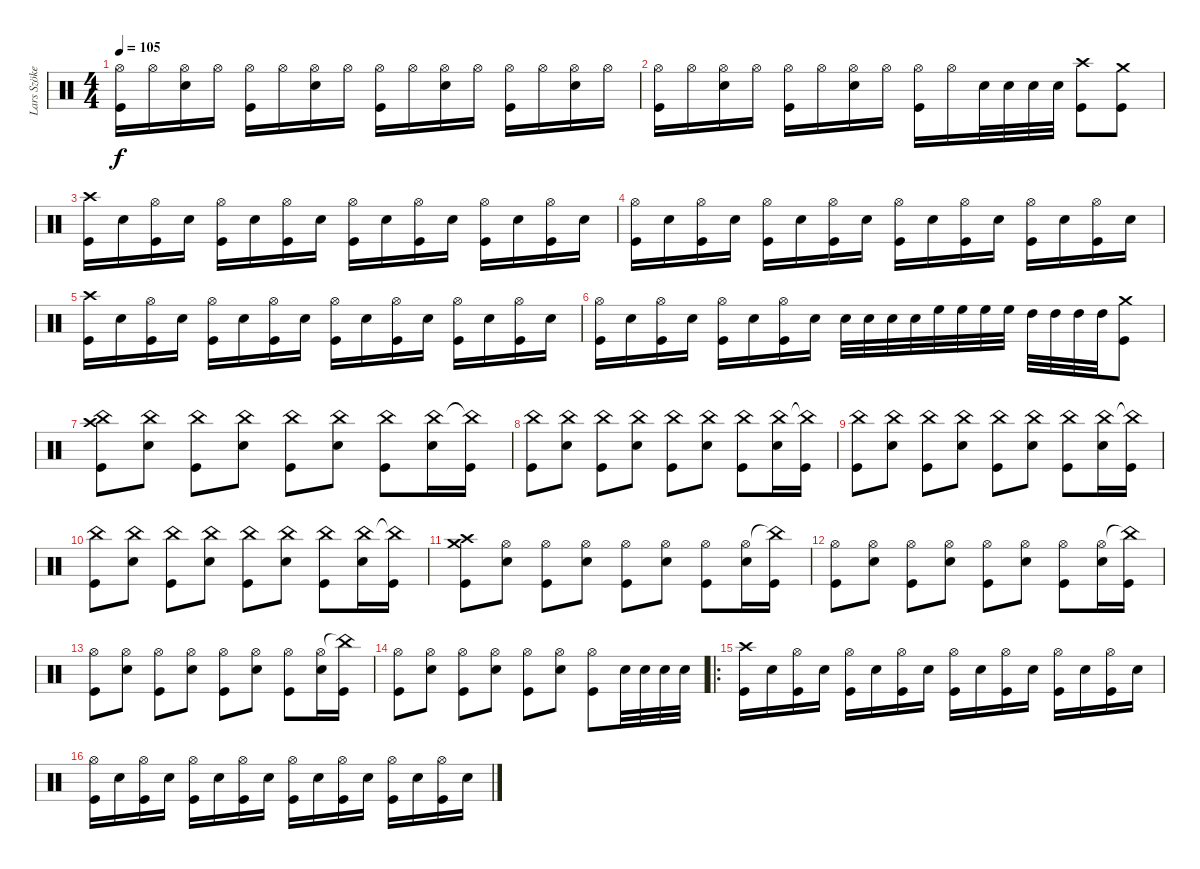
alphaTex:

\track ("Lars Szöke" "Lars Szöke") {instrument percussion}
\staff {score}
\articulation defaults
\ts (4 4)
\tempo 105
\clef neutral
\ks c
("Hi-Hat (open)" "Kick (hit)").16{dy f} "Hi-Hat (open)".16 ("Hi-Hat (open)" "Snare (hit) 2").16 "Hi-Hat (open)".16 ("Hi-Hat (open)" "Kick (hit)").16 "Hi-Hat (open)".16 ("Hi-Hat (open)" "Snare (hit) 2").16 "Hi-Hat (open)".16 ("Hi-Hat (open)" "Kick (hit)").16 "Hi-Hat (open)".16 ("Hi-Hat (open)" "Snare (hit) 2").16 "Hi-Hat (open)".16 ("Hi-Hat (open)" "Kick (hit)").16 "Hi-Hat (open)".16 ("Hi-Hat (open)" "Snare (hit) 2").16 "Hi-Hat (open)".16 |
("Hi-Hat (open)" "Kick (hit)").16 "Hi-Hat (open)".16 ("Hi-Hat (open)" "Snare (hit) 2").16 "Hi-Hat (open)".16 ("Hi-Hat (open)" "Kick (hit)").16 "Hi-Hat (open)".16 ("Hi-Hat (open)" "Snare (hit) 2").16 "Hi-Hat (open)".16 ("Hi-Hat (open)" "Kick (hit)").16 "Hi-Hat (open)".16 "Snare (hit) 2".32 "Snare (hit) 2".32 "Snare (hit) 2".32 "Snare (hit) 2".32 ("Crash high (hit)" "Kick (hit)").8 ("Crash medium (hit)" "Kick (hit)").8 |
("Crash high (hit)" "Kick (hit)").16 "Snare (hit) 2".16 ("Hi-Hat (open)" "Kick (hit)").16 "Snare (hit) 2".16 ("Hi-Hat (open)" "Kick (hit)").16 "Snare (hit) 2".16 ("Hi-Hat (open)" "Kick (hit)").16 "Snare (hit) 2".16 ("Hi-Hat (open)" "Kick (hit)").16 "Snare (hit) 2".16 ("Hi-Hat (open)" "Kick (hit)").16 "Snare (hit) 2".16 ("Hi-Hat (open)" "Kick (hit)").16 "Snare (hit) 2".16 ("Hi-Hat (open)" "Kick (hit)").16 "Snare (hit) 2".16 |
("Hi-Hat (open)" "Kick (hit)").16 "Snare (hit) 2".16 ("Hi-Hat (open)" "Kick (hit)").16 "Snare (hit) 2".16 ("Hi-Hat (open)" "Kick (hit)").16 "Snare (hit) 2".16 ("Hi-Hat (open)" "Kick (hit)").16 "Snare (hit) 2".16 ("Hi-Hat (open)" "Kick (hit)").16 "Snare (hit) 2".16 ("Hi-Hat (open)" "Kick (hit)").16 "Snare (hit) 2".16 ("Hi-Hat (open)" "Kick (hit)").16 "Snare (hit) 2".16 ("Hi-Hat (open)" "Kick (hit)").16 "Snare (hit) 2".16 |
("Crash high (hit)" "Kick (hit)").16 "Snare (hit) 2".16 ("Hi-Hat (open)" "Kick (hit)").16 "Snare (hit) 2".16 ("Hi-Hat (open)" "Kick (hit)").16 "Snare (hit) 2".16 ("Hi-Hat (open)" "Kick (hit)").16 "Snare (hit) 2".16 ("Hi-Hat (open)" "Kick (hit)").16 "Snare (hit) 2".16 ("Hi-Hat (open)" "Kick (hit)").16 "Snare (hit) 2".16 ("Hi-Hat (open)" "Kick (hit)").16 "Snare (hit) 2".16 ("Hi-Hat (open)" "Kick (hit)").16 "Snare (hit) 2".16 |
("Hi-Hat (open)" "Kick (hit)").16 "Snare (hit) 2".16 ("Hi-Hat (open)" "Kick (hit)").16 "Snare (hit) 2".16 ("Hi-Hat (open)" "Kick (hit)").16 "Snare (hit) 2".16 ("Hi-Hat (open)" "Kick (hit)").16 "Snare (hit) 2".16 "Snare (hit) 2".32 "Snare (hit) 2".32 "Snare (hit) 2".32 "Snare (hit) 2".32 "High Floor Tom (hit)".32 "High Floor Tom (hit)".32 "High Floor Tom (hit)".32 "High Floor Tom (hit)".32 "High Tom (hit)".32 "High Tom (hit)".32 "High Tom (hit)".32 "High Tom (hit)".32 ("Crash medium (hit)" "Kick (hit)").8 |
("China (hit)" "Crash high (hit)" "Kick (hit)").8 ("China (hit)" "Snare (hit) 2").8 ("China (hit)" "Kick (hit)").8 ("China (hit)" "Snare (hit) 2").8 ("China (hit)" "Kick (hit)").8 ("China (hit)" "Snare (hit) 2").8 ("China (hit)" "Kick (hit)").8 ("China (hit)" "Snare (hit) 2").16 ("China (hit)"{t} "Kick (hit)").16 |
("China (hit)" "Kick (hit)").8 ("China (hit)" "Snare (hit) 2").8 ("China (hit)" "Kick (hit)").8 ("China (hit)" "Snare (hit) 2").8 ("China (hit)" "Kick (hit)").8 ("China (hit)" "Snare (hit) 2").8 ("China (hit)" "Kick (hit)").8 ("China (hit)" "Snare (hit) 2").16 ("China (hit)"{t} "Kick (hit)").16 |
("China (hit)" "Kick (hit)").8 ("China (hit)" "Snare (hit) 2").8 ("China (hit)" "Kick (hit)").8 ("China (hit)" "Snare (hit) 2").8 ("China (hit)" "Kick (hit)").8 ("China (hit)" "Snare (hit) 2").8 ("China (hit)" "Kick (hit)").8 ("China (hit)" "Snare (hit) 2").16 ("China (hit)"{t} "Kick (hit)").16 |
("China (hit)" "Kick (hit)").8 ("China (hit)" "Snare (hit) 2").8 ("China (hit)" "Kick (hit)").8 ("China (hit)" "Snare (hit) 2").8 ("China (hit)" "Kick (hit)").8 ("China (hit)" "Snare (hit) 2").8 ("China (hit)" "Kick (hit)").8 ("China (hit)" "Snare (hit) 2").16 ("China (hit)"{t} "Kick (hit)").16 |
("Crash high (hit)" "Crash medium (hit)" "Kick (hit)").8 ("Hi-Hat (open)" "Snare (hit) 2").8 ("Hi-Hat (open)" "Kick (hit)").8 ("Hi-Hat (open)" "Snare (hit) 2").8 ("Hi-Hat (open)" "Kick (hit)").8 ("Hi-Hat (open)" "Snare (hit) 2").8 ("Hi-Hat (open)" "Kick (hit)").8 ("Hi-Hat (open)" "Snare (hit) 2").16 ("China (hit)"{t} "Kick (hit)").16 |
("Hi-Hat (open)" "Kick (hit)").8 ("Hi-Hat (open)" "Snare (hit) 2").8 ("Hi-Hat (open)" "Kick (hit)").8 ("Hi-Hat (open)" "Snare (hit) 2").8 ("Hi-Hat (open)" "Kick (hit)").8 ("Hi-Hat (open)" "Snare (hit) 2").8 ("Hi-Hat (open)" "Kick (hit)").8 ("Hi-Hat (open)" "Snare (hit) 2").16 ("China (hit)"{t} "Kick (hit)").16 |
("Hi-Hat (open)" "Kick (hit)").8 ("Hi-Hat (open)" "Snare (hit) 2").8 ("Hi-Hat (open)" "Kick (hit)").8 ("Hi-Hat (open)" "Snare (hit) 2").8 ("Hi-Hat (open)" "Kick (hit)").8 ("Hi-Hat (open)" "Snare (hit) 2").8 ("Hi-Hat (open)" "Kick (hit)").8 ("Hi-Hat (open)" "Snare (hit) 2").16 ("China (hit)"{t} "Kick (hit)").16 |
("Hi-Hat (open)" "Kick (hit)").8 ("Hi-Hat (open)" "Snare (hit) 2").8 ("Hi-Hat (open)" "Kick (hit)").8 ("Hi-Hat (open)" "Snare (hit) 2").8 ("Hi-Hat (open)" "Kick (hit)").8 ("Hi-Hat (open)" "Snare (hit) 2").8 ("Hi-Hat (open)" "Kick (hit)").8 "Snare (hit) 2".32 "Snare (hit) 2".32 "Snare (hit) 2".32 "Snare (hit) 2".32 |
\ro
("Crash high (hit)" "Kick (hit)").16 "Snare (hit) 2".16 ("Hi-Hat (open)" "Kick (hit)").16 "Snare (hit) 2".16 ("Hi-Hat (open)" "Kick (hit)").16 "Snare (hit) 2".16 ("Hi-Hat (open)" "Kick (hit)").16 "Snare (hit) 2".16 ("Hi-Hat (open)" "Kick (hit)").16 "Snare (hit) 2".16 ("Hi-Hat (open)" "Kick (hit)").16 "Snare (hit) 2".16 ("Hi-Hat (open)" "Kick (hit)").16 "Snare (hit) 2".16 ("Hi-Hat (open)" "Kick (hit)").16 "Snare (hit) 2".16 |
("Hi-Hat (open)" "Kick (hit)").16 "Snare (hit) 2".16 ("Hi-Hat (open)" "Kick (hit)").16 "Snare (hit) 2".16 ("Hi-Hat (open)" "Kick (hit)").16 "Snare (hit) 2".16 ("Hi-Hat (open)" "Kick (hit)").16 "Snare (hit) 2".16 ("Hi-Hat (open)" "Kick (hit)").16 "Snare (hit) 2".16 ("Hi-Hat (open)" "Kick (hit)").16 "Snare (hit) 2".16 ("Hi-Hat (open)" "Kick (hit)").16 "Snare (hit) 2".16 ("Hi-Hat (open)" "Kick (hit)").16 "Snare (hit) 2".16
